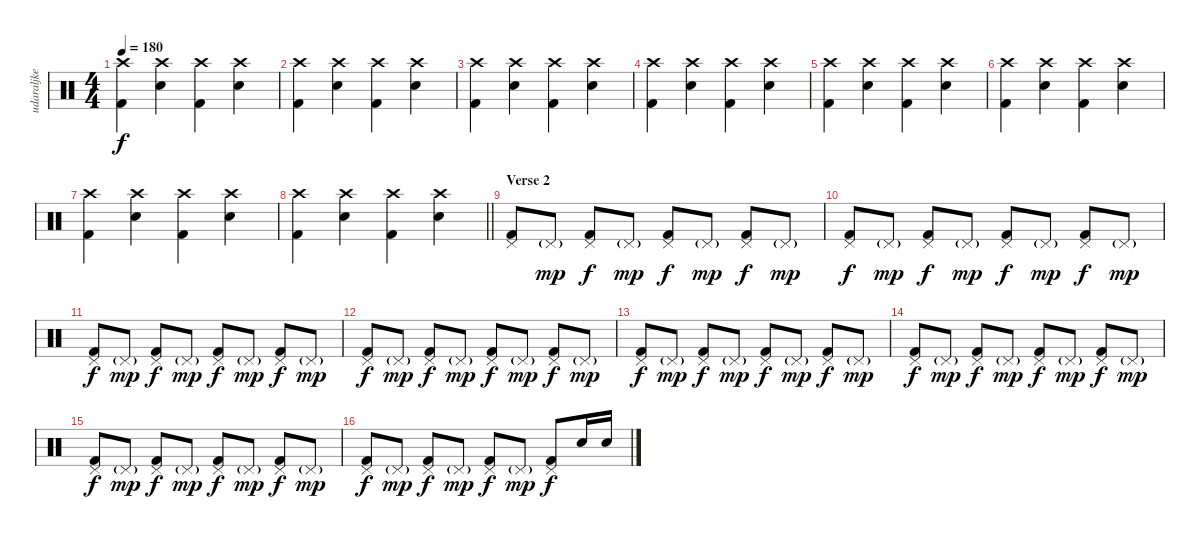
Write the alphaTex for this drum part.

\track ("udaraljke" "udaraljke") {instrument percussion}
\staff {score}
\articulation defaults
\ts (4 4)
\tempo 180
\clef neutral
\ks c
("Crash high (hit)" "Kick (hit) 2").4{dy f} ("Crash high (hit)" "Snare (hit) 2").4 ("Crash high (hit)" "Kick (hit) 2").4 ("Crash high (hit)" "Snare (hit) 2").4 |
("Crash high (hit)" "Kick (hit) 2").4 ("Crash high (hit)" "Snare (hit) 2").4 ("Crash high (hit)" "Kick (hit) 2").4 ("Crash high (hit)" "Snare (hit) 2").4 |
("Crash high (hit)" "Kick (hit) 2").4 ("Crash high (hit)" "Snare (hit) 2").4 ("Crash high (hit)" "Kick (hit) 2").4 ("Crash high (hit)" "Snare (hit) 2").4 |
("Crash high (hit)" "Kick (hit) 2").4 ("Crash high (hit)" "Snare (hit) 2").4 ("Crash high (hit)" "Kick (hit) 2").4 ("Crash high (hit)" "Snare (hit) 2").4 |
("Crash high (hit)" "Kick (hit) 2").4 ("Crash high (hit)" "Snare (hit) 2").4 ("Crash high (hit)" "Kick (hit) 2").4 ("Crash high (hit)" "Snare (hit) 2").4 |
("Crash high (hit)" "Kick (hit) 2").4 ("Crash high (hit)" "Snare (hit) 2").4 ("Crash high (hit)" "Kick (hit) 2").4 ("Crash high (hit)" "Snare (hit) 2").4 |
("Crash high (hit)" "Kick (hit) 2").4 ("Crash high (hit)" "Snare (hit) 2").4 ("Crash high (hit)" "Kick (hit) 2").4 ("Crash high (hit)" "Snare (hit) 2").4 |
\barLineRight lightlight
("Crash high (hit)" "Kick (hit) 2").4 ("Crash high (hit)" "Snare (hit) 2").4 ("Crash high (hit)" "Kick (hit) 2").4 ("Crash high (hit)" "Snare (hit) 2").4 |
\section ("" "Verse 2")
("Pedal Hi-Hat (hit)" "Kick (hit) 2").8 "Pedal Hi-Hat (hit)"{g}.8{dy mp} ("Pedal Hi-Hat (hit)" "Kick (hit) 2").8{dy f} "Pedal Hi-Hat (hit)"{g}.8{dy mp} ("Pedal Hi-Hat (hit)" "Kick (hit) 2").8{dy f} "Pedal Hi-Hat (hit)"{g}.8{dy mp} ("Pedal Hi-Hat (hit)" "Kick (hit) 2").8{dy f} "Pedal Hi-Hat (hit)"{g}.8{dy mp} |
("Pedal Hi-Hat (hit)" "Kick (hit) 2").8{dy f} "Pedal Hi-Hat (hit)"{g}.8{dy mp} ("Pedal Hi-Hat (hit)" "Kick (hit) 2").8{dy f} "Pedal Hi-Hat (hit)"{g}.8{dy mp} ("Pedal Hi-Hat (hit)" "Kick (hit) 2").8{dy f} "Pedal Hi-Hat (hit)"{g}.8{dy mp} ("Pedal Hi-Hat (hit)" "Kick (hit) 2").8{dy f} "Pedal Hi-Hat (hit)"{g}.8{dy mp} |
("Pedal Hi-Hat (hit)" "Kick (hit) 2").8{dy f} "Pedal Hi-Hat (hit)"{g}.8{dy mp} ("Pedal Hi-Hat (hit)" "Kick (hit) 2").8{dy f} "Pedal Hi-Hat (hit)"{g}.8{dy mp} ("Pedal Hi-Hat (hit)" "Kick (hit) 2").8{dy f} "Pedal Hi-Hat (hit)"{g}.8{dy mp} ("Pedal Hi-Hat (hit)" "Kick (hit) 2").8{dy f} "Pedal Hi-Hat (hit)"{g}.8{dy mp} |
("Pedal Hi-Hat (hit)" "Kick (hit) 2").8{dy f} "Pedal Hi-Hat (hit)"{g}.8{dy mp} ("Pedal Hi-Hat (hit)" "Kick (hit) 2").8{dy f} "Pedal Hi-Hat (hit)"{g}.8{dy mp} ("Pedal Hi-Hat (hit)" "Kick (hit) 2").8{dy f} "Pedal Hi-Hat (hit)"{g}.8{dy mp} ("Pedal Hi-Hat (hit)" "Kick (hit) 2").8{dy f} "Pedal Hi-Hat (hit)"{g}.8{dy mp} |
("Pedal Hi-Hat (hit)" "Kick (hit) 2").8{dy f} "Pedal Hi-Hat (hit)"{g}.8{dy mp} ("Pedal Hi-Hat (hit)" "Kick (hit) 2").8{dy f} "Pedal Hi-Hat (hit)"{g}.8{dy mp} ("Pedal Hi-Hat (hit)" "Kick (hit) 2").8{dy f} "Pedal Hi-Hat (hit)"{g}.8{dy mp} ("Pedal Hi-Hat (hit)" "Kick (hit) 2").8{dy f} "Pedal Hi-Hat (hit)"{g}.8{dy mp} |
("Pedal Hi-Hat (hit)" "Kick (hit) 2").8{dy f} "Pedal Hi-Hat (hit)"{g}.8{dy mp} ("Pedal Hi-Hat (hit)" "Kick (hit) 2").8{dy f} "Pedal Hi-Hat (hit)"{g}.8{dy mp} ("Pedal Hi-Hat (hit)" "Kick (hit) 2").8{dy f} "Pedal Hi-Hat (hit)"{g}.8{dy mp} ("Pedal Hi-Hat (hit)" "Kick (hit) 2").8{dy f} "Pedal Hi-Hat (hit)"{g}.8{dy mp} |
("Pedal Hi-Hat (hit)" "Kick (hit) 2").8{dy f} "Pedal Hi-Hat (hit)"{g}.8{dy mp} ("Pedal Hi-Hat (hit)" "Kick (hit) 2").8{dy f} "Pedal Hi-Hat (hit)"{g}.8{dy mp} ("Pedal Hi-Hat (hit)" "Kick (hit) 2").8{dy f} "Pedal Hi-Hat (hit)"{g}.8{dy mp} ("Pedal Hi-Hat (hit)" "Kick (hit) 2").8{dy f} "Pedal Hi-Hat (hit)"{g}.8{dy mp} |
("Pedal Hi-Hat (hit)" "Kick (hit) 2").8{dy f} "Pedal Hi-Hat (hit)"{g}.8{dy mp} ("Pedal Hi-Hat (hit)" "Kick (hit) 2").8{dy f} "Pedal Hi-Hat (hit)"{g}.8{dy mp} ("Pedal Hi-Hat (hit)" "Kick (hit) 2").8{dy f} "Pedal Hi-Hat (hit)"{g}.8{dy mp} ("Pedal Hi-Hat (hit)" "Kick (hit) 2").8{dy f} "Snare (hit) 2".16 "Snare (hit) 2".16
